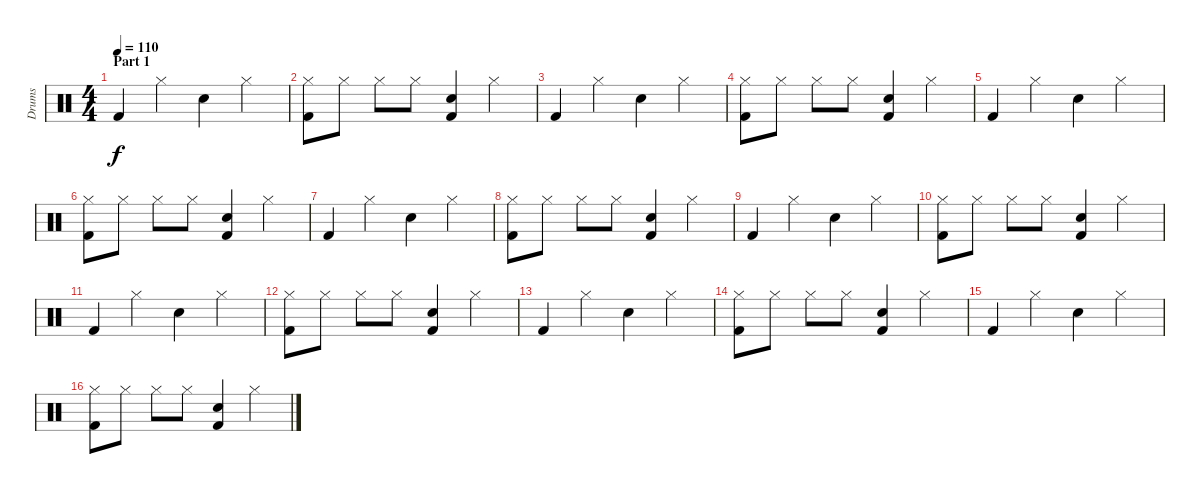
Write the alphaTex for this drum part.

\track ("Drums" "Drums") {instrument percussion}
\staff {score}
\articulation defaults
\ts (4 4)
\section ("" "Part 1")
\tempo 110
\clef neutral
\ks c "Kick (hit) 2".4{dy f} "Hi-Hat (closed)".4 "Snare (hit) 2".4 "Hi-Hat (closed)".4
|
("Hi-Hat (closed)" "Kick (hit) 2").8 "Hi-Hat (closed)".8 "Hi-Hat (closed)".8 "Hi-Hat (closed)".8 ("Snare (hit) 2" "Kick (hit) 2").4 "Hi-Hat (closed)".4 |
"Kick (hit) 2".4 "Hi-Hat (closed)".4 "Snare (hit) 2".4 "Hi-Hat (closed)".4 |
("Hi-Hat (closed)" "Kick (hit) 2").8 "Hi-Hat (closed)".8 "Hi-Hat (closed)".8 "Hi-Hat (closed)".8 ("Snare (hit) 2" "Kick (hit) 2").4 "Hi-Hat (closed)".4 |
"Kick (hit) 2".4 "Hi-Hat (closed)".4 "Snare (hit) 2".4 "Hi-Hat (closed)".4 |
("Hi-Hat (closed)" "Kick (hit) 2").8 "Hi-Hat (closed)".8 "Hi-Hat (closed)".8 "Hi-Hat (closed)".8 ("Snare (hit) 2" "Kick (hit) 2").4 "Hi-Hat (closed)".4 |
"Kick (hit) 2".4 "Hi-Hat (closed)".4 "Snare (hit) 2".4 "Hi-Hat (closed)".4 |
("Hi-Hat (closed)" "Kick (hit) 2").8 "Hi-Hat (closed)".8 "Hi-Hat (closed)".8 "Hi-Hat (closed)".8 ("Snare (hit) 2" "Kick (hit) 2").4 "Hi-Hat (closed)".4 |
"Kick (hit) 2".4 "Hi-Hat (closed)".4 "Snare (hit) 2".4 "Hi-Hat (closed)".4 |
("Hi-Hat (closed)" "Kick (hit) 2").8 "Hi-Hat (closed)".8 "Hi-Hat (closed)".8 "Hi-Hat (closed)".8 ("Snare (hit) 2" "Kick (hit) 2").4 "Hi-Hat (closed)".4 |
"Kick (hit) 2".4 "Hi-Hat (closed)".4 "Snare (hit) 2".4 "Hi-Hat (closed)".4 |
("Hi-Hat (closed)" "Kick (hit) 2").8 "Hi-Hat (closed)".8 "Hi-Hat (closed)".8 "Hi-Hat (closed)".8 ("Snare (hit) 2" "Kick (hit) 2").4 "Hi-Hat (closed)".4 |
"Kick (hit) 2".4 "Hi-Hat (closed)".4 "Snare (hit) 2".4 "Hi-Hat (closed)".4 |
("Hi-Hat (closed)" "Kick (hit) 2").8 "Hi-Hat (closed)".8 "Hi-Hat (closed)".8 "Hi-Hat (closed)".8 ("Snare (hit) 2" "Kick (hit) 2").4 "Hi-Hat (closed)".4 |
"Kick (hit) 2".4 "Hi-Hat (closed)".4 "Snare (hit) 2".4 "Hi-Hat (closed)".4 |
("Hi-Hat (closed)" "Kick (hit) 2").8 "Hi-Hat (closed)".8 "Hi-Hat (closed)".8 "Hi-Hat (closed)".8 ("Snare (hit) 2" "Kick (hit) 2").4 "Hi-Hat (closed)".4
